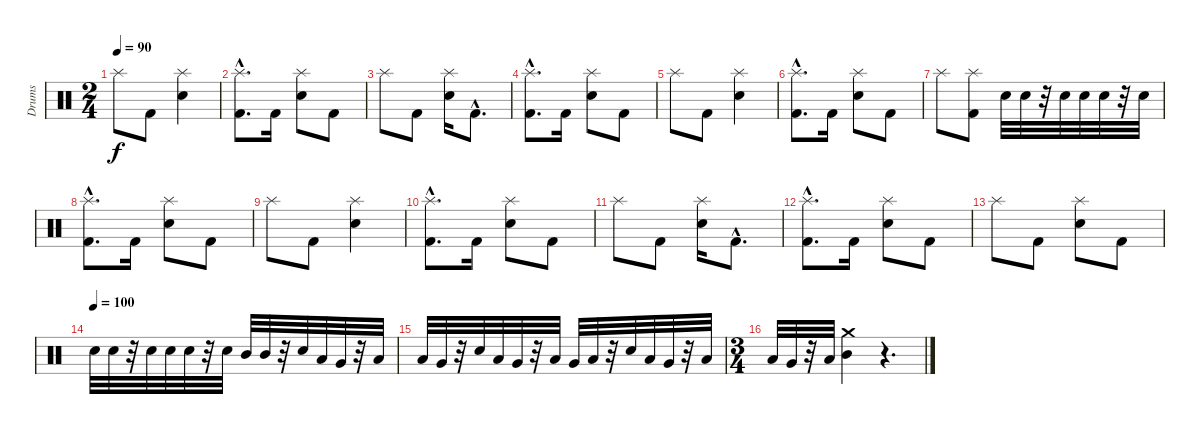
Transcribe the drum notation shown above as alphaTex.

\track ("Drums" "Drums") {instrument percussion}
\staff {score}
\articulation defaults
\ts (2 4)
\tempo 90
\clef neutral
\ks c "Splash (hit)".8{dy f} "Kick (hit) 2".8
("Electric Snare (hit)" "Splash (hit)").4 |
("Splash (hit)"{hac} "Kick (hit) 2"{hac}).8{d} "Kick (hit) 2".16 ("Electric Snare (hit)" "Splash (hit)").8 "Kick (hit) 2".8 |
"Splash (hit)".8 "Kick (hit) 2".8 ("Electric Snare (hit)" "Splash (hit)").16 "Kick (hit) 2"{hac}.8{d} |
("Splash (hit)"{hac} "Kick (hit) 2"{hac}).8{d} "Kick (hit) 2".16 ("Electric Snare (hit)" "Splash (hit)").8 "Kick (hit) 2".8 |
"Splash (hit)".8 "Kick (hit) 2".8 ("Electric Snare (hit)" "Splash (hit)").4 |
("Splash (hit)"{hac} "Kick (hit) 2"{hac}).8{d} "Kick (hit) 2".16 ("Electric Snare (hit)" "Splash (hit)").8 "Kick (hit) 2".8 |
"Splash (hit)".8 ("Splash (hit)" "Kick (hit) 2").8 "Electric Snare (hit)".32 "Electric Snare (hit)".32 r.32 "Electric Snare (hit)".32 "Electric Snare (hit)".32 "Electric Snare (hit)".32 r.32 "Electric Snare (hit)".32 |
("Splash (hit)"{hac} "Kick (hit) 2"{hac}).8{d} "Kick (hit) 2".16 ("Electric Snare (hit)" "Splash (hit)").8 "Kick (hit) 2".8 |
"Splash (hit)".8 "Kick (hit) 2".8 ("Electric Snare (hit)" "Splash (hit)").4 |
("Splash (hit)"{hac} "Kick (hit) 2"{hac}).8{d} "Kick (hit) 2".16 ("Electric Snare (hit)" "Splash (hit)").8 "Kick (hit) 2".8 |
"Splash (hit)".8 "Kick (hit) 2".8 ("Electric Snare (hit)" "Splash (hit)").16 "Kick (hit) 2"{hac}.8{d} |
("Splash (hit)"{hac} "Kick (hit) 2"{hac}).8{d} "Kick (hit) 2".16 ("Electric Snare (hit)" "Splash (hit)").8 "Kick (hit) 2".8 |
"Splash (hit)".8 "Kick (hit) 2".8 ("Electric Snare (hit)" "Splash (hit)").8 "Kick (hit) 2".8 |
\tempo (100)
"Electric Snare (hit)".32 "Electric Snare (hit)".32 r.32 "Electric Snare (hit)".32 "Electric Snare (hit)".32 "Electric Snare (hit)".32 r.32 "Electric Snare (hit)".32 "Mid Tom (hit)".32 "Mid Tom (hit)".32 r.32 "Electric Snare (hit)".32 "Low Tom (hit)".32 "Very Low Tom (hit)".32 r.32 "Low Tom (hit)".32 |
"Low Tom (hit)".32 "Very Low Tom (hit)".32 r.32 "Electric Snare (hit)".32 "Low Tom (hit)".32 "Very Low Tom (hit)".32 r.32 "Low Tom (hit)".32 "Very Low Tom (hit)".32 "Low Tom (hit)".32 r.32 "Electric Snare (hit)".32 "Low Tom (hit)".32 "Very Low Tom (hit)".32 r.32 "Low Tom (hit)".32 |
\ts (3 4)
"Low Tom (hit)".32 "Very Low Tom (hit)".32 r.32 "Low Floor Tom (hit)".32 ("Crash medium (hit)" "Mid Tom (hit)").4 r.4{d}
